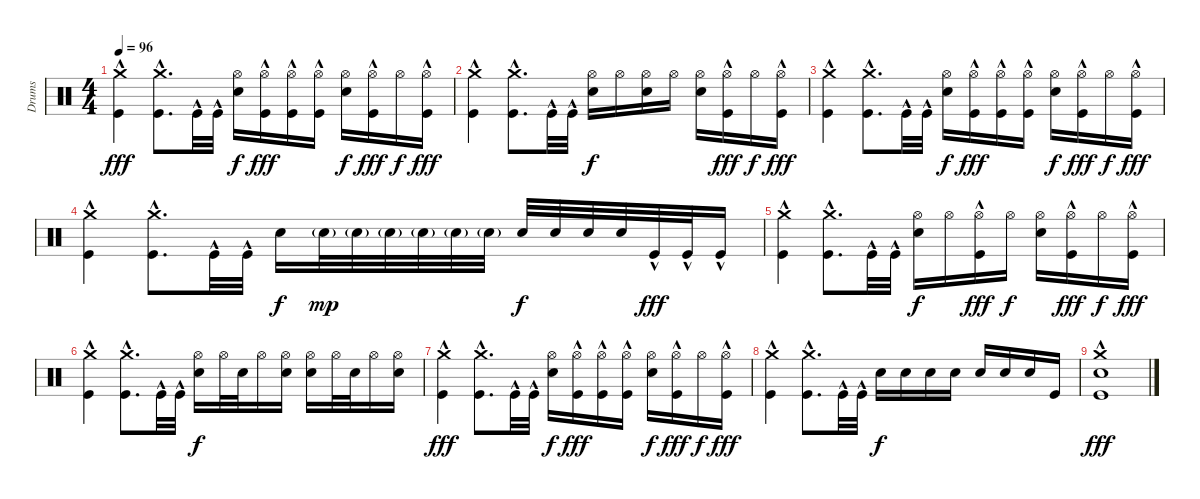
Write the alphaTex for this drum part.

\track ("Drums" "Drums") {instrument percussion}
\staff {score}
\articulation defaults
\ts (4 4)
\tempo 96
\clef neutral
\ks c
("Crash medium (hit)" "Kick (hit)"{hac}).4{dy fff} ("Crash medium (hit)" "Kick (hit)"{hac}).8{d} "Kick (hit)"{hac}.32 "Kick (hit)"{hac}.32 ("Hi-Hat (open)" "Electric Snare (hit)").16{dy f} ("Hi-Hat (open)" "Kick (hit)"{hac}).16{dy fff} ("Hi-Hat (open)" "Kick (hit)"{hac}).16 ("Hi-Hat (open)" "Kick (hit)"{hac}).16 ("Hi-Hat (open)" "Electric Snare (hit)").16{dy f} ("Hi-Hat (open)" "Kick (hit)"{hac}).16{dy fff} "Hi-Hat (open)".16{dy f} ("Hi-Hat (open)" "Kick (hit)"{hac}).16{dy fff} |
("Crash medium (hit)" "Kick (hit)"{hac}).4 ("Crash medium (hit)" "Kick (hit)"{hac}).8{d} "Kick (hit)"{hac}.32 "Kick (hit)"{hac}.32 ("Hi-Hat (open)" "Electric Snare (hit)").16{dy f} "Hi-Hat (open)".16 ("Hi-Hat (open)" "Electric Snare (hit)").16 "Hi-Hat (open)".16 ("Hi-Hat (open)" "Electric Snare (hit)").16 ("Hi-Hat (open)" "Kick (hit)"{hac}).16{dy fff} "Hi-Hat (open)".16{dy f} ("Hi-Hat (open)" "Kick (hit)"{hac}).16{dy fff} |
("Crash medium (hit)" "Kick (hit)"{hac}).4 ("Crash medium (hit)" "Kick (hit)"{hac}).8{d} "Kick (hit)"{hac}.32 "Kick (hit)"{hac}.32 ("Hi-Hat (open)" "Electric Snare (hit)").16{dy f} ("Hi-Hat (open)" "Kick (hit)"{hac}).16{dy fff} ("Hi-Hat (open)" "Kick (hit)"{hac}).16 ("Hi-Hat (open)" "Kick (hit)"{hac}).16 ("Hi-Hat (open)" "Electric Snare (hit)").16{dy f} ("Hi-Hat (open)" "Kick (hit)"{hac}).16{dy fff} "Hi-Hat (open)".16{dy f} ("Hi-Hat (open)" "Kick (hit)"{hac}).16{dy fff} |
("Crash medium (hit)" "Kick (hit)"{hac}).4 ("Crash medium (hit)" "Kick (hit)"{hac}).8{d} "Kick (hit)"{hac}.32 "Kick (hit)"{hac}.32 "Electric Snare (hit)".16{dy f} "Electric Snare (hit)"{g}.32{dy mp} "Electric Snare (hit)"{g}.32 "Electric Snare (hit)"{g}.32 "Electric Snare (hit)"{g}.32 "Electric Snare (hit)"{g}.32 "Electric Snare (hit)"{g}.32 "Electric Snare (hit)".32{dy f} "Electric Snare (hit)".32 "Electric Snare (hit)".32 "Electric Snare (hit)".32 "Kick (hit)"{hac}.32{dy fff} "Kick (hit)"{hac}.32 "Kick (hit)"{hac}.16 |
("Crash medium (hit)" "Kick (hit)"{hac}).4 ("Crash medium (hit)" "Kick (hit)"{hac}).8{d} "Kick (hit)"{hac}.32 "Kick (hit)"{hac}.32 ("Hi-Hat (open)" "Electric Snare (hit)").16{dy f} "Hi-Hat (open)".16 ("Hi-Hat (open)" "Kick (hit)"{hac}).16{dy fff} "Hi-Hat (open)".16{dy f} ("Hi-Hat (open)" "Electric Snare (hit)").16 ("Hi-Hat (open)" "Kick (hit)"{hac}).16{dy fff} "Hi-Hat (open)".16{dy f} ("Hi-Hat (open)" "Kick (hit)"{hac}).16{dy fff} |
("Crash medium (hit)" "Kick (hit)"{hac}).4 ("Crash medium (hit)" "Kick (hit)"{hac}).8{d} "Kick (hit)"{hac}.32 "Kick (hit)"{hac}.32 ("Hi-Hat (open)" "Electric Snare (hit)").16{dy f} "Hi-Hat (open)".32 "Electric Snare (hit)".32 "Hi-Hat (open)".16 ("Hi-Hat (open)" "Electric Snare (hit)").16 ("Hi-Hat (open)" "Electric Snare (hit)").16 "Hi-Hat (open)".32 "Electric Snare (hit)".32 "Hi-Hat (open)".16 ("Hi-Hat (open)" "Electric Snare (hit)").16 |
("Crash medium (hit)" "Kick (hit)"{hac}).4{dy fff} ("Crash medium (hit)" "Kick (hit)"{hac}).8{d} "Kick (hit)"{hac}.32 "Kick (hit)"{hac}.32 ("Hi-Hat (open)" "Electric Snare (hit)").16{dy f} ("Hi-Hat (open)" "Kick (hit)"{hac}).16{dy fff} ("Hi-Hat (open)" "Kick (hit)"{hac}).16 ("Hi-Hat (open)" "Kick (hit)"{hac}).16 ("Hi-Hat (open)" "Electric Snare (hit)").16{dy f} ("Hi-Hat (open)" "Kick (hit)"{hac}).16{dy fff} "Hi-Hat (open)".16{dy f} ("Hi-Hat (open)" "Kick (hit)"{hac}).16{dy fff} |
("Crash medium (hit)" "Kick (hit)"{hac}).4 ("Crash medium (hit)" "Kick (hit)"{hac}).8{d} "Kick (hit)"{hac}.32 "Kick (hit)"{hac}.32 "Electric Snare (hit)".16{dy f} "Electric Snare (hit)".16 "Electric Snare (hit)".16 "Electric Snare (hit)".16 "Electric Snare (hit)".16 "Electric Snare (hit)".16 "Electric Snare (hit)".16 "Kick (hit)".16 |
("Crash medium (hit)" "Electric Snare (hit)" "Kick (hit)"{hac}).1{dy fff}
